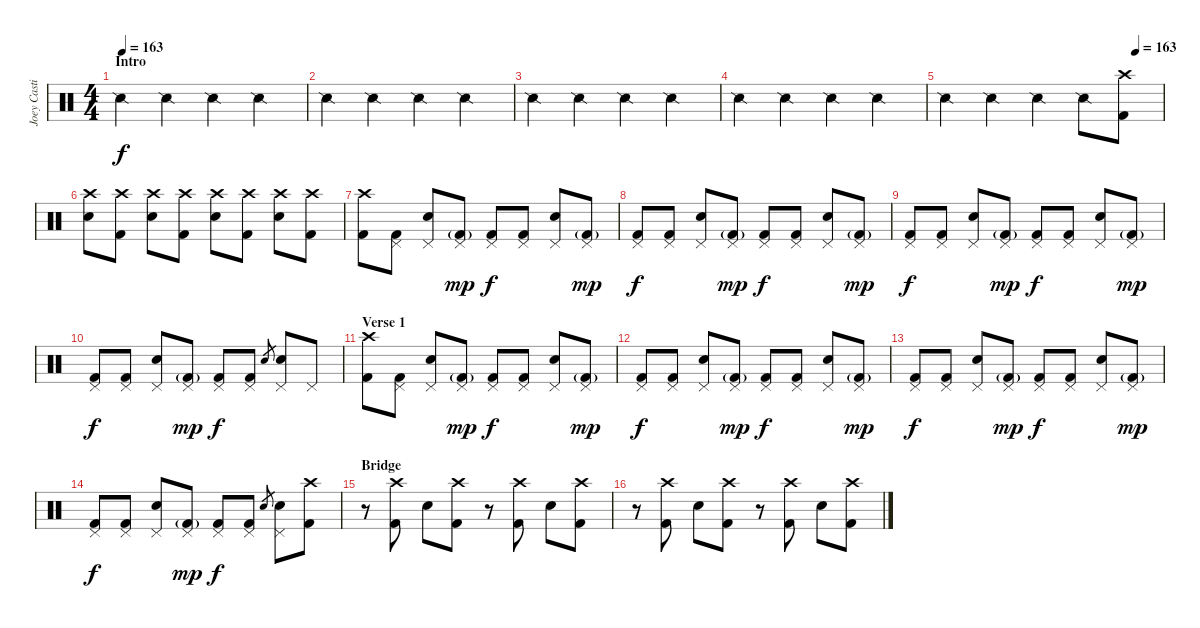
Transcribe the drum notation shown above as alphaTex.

\track ("Joey Castillo" "Joey Casti") {instrument percussion}
\staff {score}
\articulation defaults
\ts (4 4)
\section ("" "Intro")
\tempo 163
\tempo 157
\tempo 163
\clef neutral
\ks c "Snare (side stick) 2".4{dy f} "Snare (side stick) 2".4 "Snare (side stick) 2".4 "Snare (side stick) 2".4
|
"Snare (side stick) 2".4 "Snare (side stick) 2".4 "Snare (side stick) 2".4 "Snare (side stick) 2".4 |
"Snare (side stick) 2".4 "Snare (side stick) 2".4 "Snare (side stick) 2".4 "Snare (side stick) 2".4 |
"Snare (side stick) 2".4 "Snare (side stick) 2".4 "Snare (side stick) 2".4 "Snare (side stick) 2".4 |
\tempo (163 0.875)
"Snare (side stick) 2".4 "Snare (side stick) 2".4 "Snare (side stick) 2".4 "Snare (side stick) 2".8 ("Crash high (hit)" "Kick (hit) 2").8 |
("Crash high (hit)" "Electric Snare (hit)").8 ("Crash high (hit)" "Kick (hit) 2").8 ("Crash high (hit)" "Electric Snare (hit)").8 ("Crash high (hit)" "Kick (hit) 2").8 ("Crash high (hit)" "Electric Snare (hit)").8 ("Crash high (hit)" "Kick (hit) 2").8 ("Crash high (hit)" "Electric Snare (hit)").8 ("Crash high (hit)" "Kick (hit) 2").8 |
("Crash high (hit)" "Kick (hit) 2").8 ("Pedal Hi-Hat (hit)" "Kick (hit) 2").8 ("Pedal Hi-Hat (hit)" "Electric Snare (hit)").8 ("Pedal Hi-Hat (hit)" "Kick (hit) 2"{g}).8{dy mp} ("Pedal Hi-Hat (hit)" "Kick (hit) 2").8{dy f} ("Pedal Hi-Hat (hit)" "Kick (hit) 2").8 ("Pedal Hi-Hat (hit)" "Electric Snare (hit)").8 ("Pedal Hi-Hat (hit)" "Kick (hit) 2"{g}).8{dy mp} |
("Pedal Hi-Hat (hit)" "Kick (hit) 2").8{dy f} ("Pedal Hi-Hat (hit)" "Kick (hit) 2").8 ("Pedal Hi-Hat (hit)" "Electric Snare (hit)").8 ("Pedal Hi-Hat (hit)" "Kick (hit) 2"{g}).8{dy mp} ("Pedal Hi-Hat (hit)" "Kick (hit) 2").8{dy f} ("Pedal Hi-Hat (hit)" "Kick (hit) 2").8 ("Pedal Hi-Hat (hit)" "Electric Snare (hit)").8 ("Pedal Hi-Hat (hit)" "Kick (hit) 2"{g}).8{dy mp} |
("Pedal Hi-Hat (hit)" "Kick (hit) 2").8{dy f} ("Pedal Hi-Hat (hit)" "Kick (hit) 2").8 ("Pedal Hi-Hat (hit)" "Electric Snare (hit)").8 ("Pedal Hi-Hat (hit)" "Kick (hit) 2"{g}).8{dy mp} ("Pedal Hi-Hat (hit)" "Kick (hit) 2").8{dy f} ("Pedal Hi-Hat (hit)" "Kick (hit) 2").8 ("Pedal Hi-Hat (hit)" "Electric Snare (hit)").8 ("Pedal Hi-Hat (hit)" "Kick (hit) 2"{g}).8{dy mp} |
("Pedal Hi-Hat (hit)" "Kick (hit) 2").8{dy f} ("Pedal Hi-Hat (hit)" "Kick (hit) 2").8 ("Pedal Hi-Hat (hit)" "Electric Snare (hit)").8 ("Pedal Hi-Hat (hit)" "Kick (hit) 2"{g}).8{dy mp} ("Pedal Hi-Hat (hit)" "Kick (hit) 2").8{dy f} ("Pedal Hi-Hat (hit)" "Kick (hit) 2").8 "Electric Snare (hit)".8{gr} ("Pedal Hi-Hat (hit)" "Electric Snare (hit)").8 "Pedal Hi-Hat (hit)".8 |
\section ("" "Verse 1")
("Crash high (hit)" "Kick (hit) 2").8 ("Pedal Hi-Hat (hit)" "Kick (hit) 2").8 ("Pedal Hi-Hat (hit)" "Electric Snare (hit)").8 ("Pedal Hi-Hat (hit)" "Kick (hit) 2"{g}).8{dy mp} ("Pedal Hi-Hat (hit)" "Kick (hit) 2").8{dy f} ("Pedal Hi-Hat (hit)" "Kick (hit) 2").8 ("Pedal Hi-Hat (hit)" "Electric Snare (hit)").8 ("Pedal Hi-Hat (hit)" "Kick (hit) 2"{g}).8{dy mp} |
("Pedal Hi-Hat (hit)" "Kick (hit) 2").8{dy f} ("Pedal Hi-Hat (hit)" "Kick (hit) 2").8 ("Pedal Hi-Hat (hit)" "Electric Snare (hit)").8 ("Pedal Hi-Hat (hit)" "Kick (hit) 2"{g}).8{dy mp} ("Pedal Hi-Hat (hit)" "Kick (hit) 2").8{dy f} ("Pedal Hi-Hat (hit)" "Kick (hit) 2").8 ("Pedal Hi-Hat (hit)" "Electric Snare (hit)").8 ("Pedal Hi-Hat (hit)" "Kick (hit) 2"{g}).8{dy mp} |
("Pedal Hi-Hat (hit)" "Kick (hit) 2").8{dy f} ("Pedal Hi-Hat (hit)" "Kick (hit) 2").8 ("Pedal Hi-Hat (hit)" "Electric Snare (hit)").8 ("Pedal Hi-Hat (hit)" "Kick (hit) 2"{g}).8{dy mp} ("Pedal Hi-Hat (hit)" "Kick (hit) 2").8{dy f} ("Pedal Hi-Hat (hit)" "Kick (hit) 2").8 ("Pedal Hi-Hat (hit)" "Electric Snare (hit)").8 ("Pedal Hi-Hat (hit)" "Kick (hit) 2"{g}).8{dy mp} |
("Pedal Hi-Hat (hit)" "Kick (hit) 2").8{dy f} ("Pedal Hi-Hat (hit)" "Kick (hit) 2").8 ("Pedal Hi-Hat (hit)" "Electric Snare (hit)").8 ("Pedal Hi-Hat (hit)" "Kick (hit) 2"{g}).8{dy mp} ("Pedal Hi-Hat (hit)" "Kick (hit) 2").8{dy f} ("Pedal Hi-Hat (hit)" "Kick (hit) 2").8 "Electric Snare (hit)".8{gr} ("Pedal Hi-Hat (hit)" "Electric Snare (hit)").8 ("Crash high (hit)" "Kick (hit) 2").8 |
\section ("" "Bridge")
r.8 ("Crash high (hit)" "Kick (hit) 2").8 "Electric Snare (hit)".8 ("Crash high (hit)" "Kick (hit) 2").8 r.8 ("Crash high (hit)" "Kick (hit) 2").8 "Electric Snare (hit)".8 ("Crash high (hit)" "Kick (hit) 2").8 |
r.8 ("Crash high (hit)" "Kick (hit) 2").8 "Electric Snare (hit)".8 ("Crash high (hit)" "Kick (hit) 2").8 r.8 ("Crash high (hit)" "Kick (hit) 2").8 "Electric Snare (hit)".8 ("Crash high (hit)" "Kick (hit) 2").8
